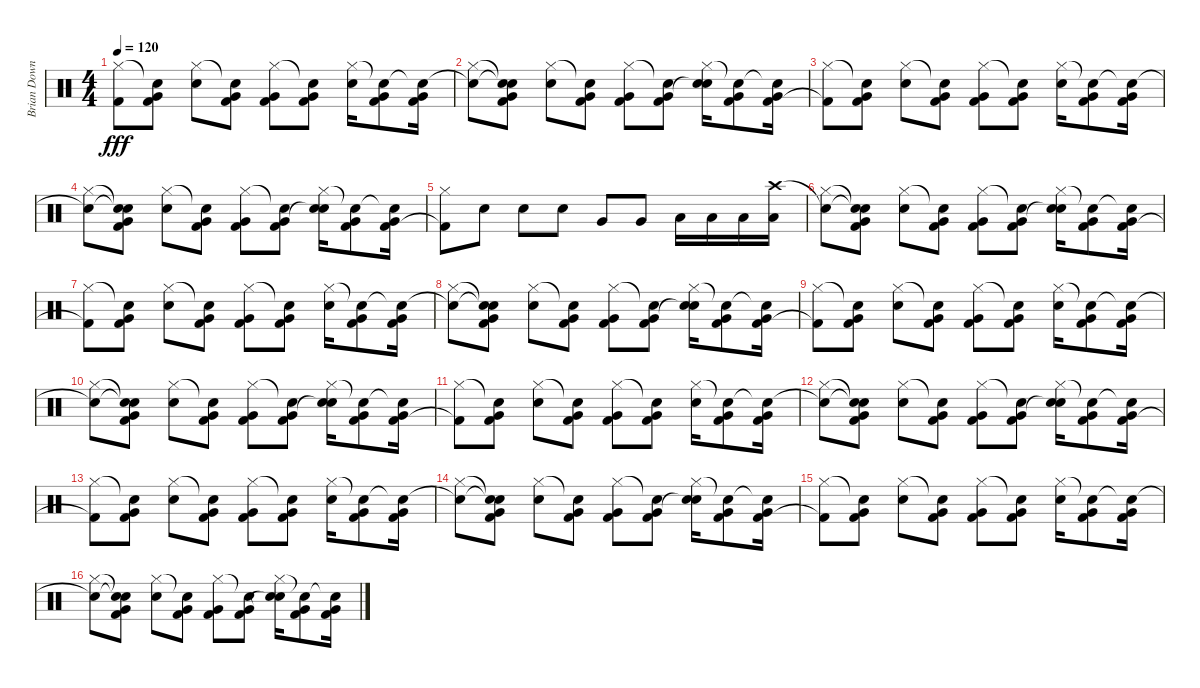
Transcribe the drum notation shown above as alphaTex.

\track ("Brian Downey" "Brian Down") {instrument percussion}
\staff {score}
\articulation defaults
\ts (4 4)
\tempo 120
\clef neutral
\ks c
("Hi-Hat (closed)" "Kick (hit) 2"{t}).8{dy fff} ("Snare (hit)"{t} "Kick (hit) 2" "Very Low Tom (hit)").8 ("Hi-Hat (closed)" "Electric Snare (hit)").8 ("Snare (hit)"{t} "Kick (hit) 2" "Very Low Tom (hit)").8 ("Hi-Hat (closed)" "Kick (hit) 2" "Very Low Tom (hit)").8 ("Snare (hit)"{t} "Kick (hit) 2" "Very Low Tom (hit)").8 ("Hi-Hat (closed)" "Electric Snare (hit)").16 ("Snare (hit)"{t} "Kick (hit) 2" "Very Low Tom (hit)").8 ("Snare (hit)"{t} "Kick (hit) 2" "Very Low Tom (hit)").16 |
("Snare (hit)"{t} "Hi-Hat (closed)").8 ("Snare (hit)"{t} "Snare (hit)"{t} "Kick (hit) 2" "Very Low Tom (hit)").8 ("Hi-Hat (closed)" "Electric Snare (hit)").8 ("Snare (hit)"{t} "Kick (hit) 2" "Very Low Tom (hit)").8 ("Hi-Hat (closed)" "Kick (hit) 2" "Very Low Tom (hit)").8 ("Snare (hit)"{t} "Kick (hit) 2" "Very Low Tom (hit)").8 ("Hi-Hat (closed)" "Electric Snare (hit)" "Snare (hit)"{t}).16 ("Snare (hit)"{t} "Kick (hit) 2" "Very Low Tom (hit)").8 ("Snare (hit)"{t} "Kick (hit) 2" "Very Low Tom (hit)").16 |
("Hi-Hat (closed)" "Kick (hit) 2"{t}).8 ("Snare (hit)"{t} "Kick (hit) 2" "Very Low Tom (hit)").8 ("Hi-Hat (closed)" "Electric Snare (hit)").8 ("Snare (hit)"{t} "Kick (hit) 2" "Very Low Tom (hit)").8 ("Hi-Hat (closed)" "Kick (hit) 2" "Very Low Tom (hit)").8 ("Snare (hit)"{t} "Kick (hit) 2" "Very Low Tom (hit)").8 ("Hi-Hat (closed)" "Electric Snare (hit)").16 ("Snare (hit)"{t} "Kick (hit) 2" "Very Low Tom (hit)").8 ("Snare (hit)"{t} "Kick (hit) 2" "Very Low Tom (hit)").16 |
("Snare (hit)"{t} "Hi-Hat (closed)").8 ("Snare (hit)"{t} "Snare (hit)"{t} "Kick (hit) 2" "Very Low Tom (hit)").8 ("Hi-Hat (closed)" "Electric Snare (hit)").8 ("Snare (hit)"{t} "Kick (hit) 2" "Very Low Tom (hit)").8 ("Hi-Hat (closed)" "Kick (hit) 2" "Very Low Tom (hit)").8 ("Snare (hit)"{t} "Kick (hit) 2" "Very Low Tom (hit)").8 ("Hi-Hat (closed)" "Electric Snare (hit)" "Snare (hit)"{t}).16 ("Snare (hit)"{t} "Kick (hit) 2" "Very Low Tom (hit)").8 ("Snare (hit)"{t} "Kick (hit) 2" "Very Low Tom (hit)").16 |
("Hi-Hat (closed)" "Kick (hit) 2"{t}).8 "Electric Snare (hit)".8 "Electric Snare (hit)".8 "Electric Snare (hit)".8 "Very Low Tom (hit)".8 "Very Low Tom (hit)".8 "Low Floor Tom (hit)".16 "Low Floor Tom (hit)".16 "Low Floor Tom (hit)".16 ("Crash high (hit)" "Low Floor Tom (hit)").16 |
("Snare (hit)"{t} "Hi-Hat (closed)").8 ("Snare (hit)"{t} "Snare (hit)"{t} "Kick (hit) 2" "Very Low Tom (hit)").8 ("Hi-Hat (closed)" "Electric Snare (hit)").8 ("Snare (hit)"{t} "Kick (hit) 2" "Very Low Tom (hit)").8 ("Hi-Hat (closed)" "Kick (hit) 2" "Very Low Tom (hit)").8 ("Snare (hit)"{t} "Kick (hit) 2" "Very Low Tom (hit)").8 ("Hi-Hat (closed)" "Electric Snare (hit)" "Snare (hit)"{t}).16 ("Snare (hit)"{t} "Kick (hit) 2" "Very Low Tom (hit)").8 ("Snare (hit)"{t} "Kick (hit) 2" "Very Low Tom (hit)").16 |
("Hi-Hat (closed)" "Kick (hit) 2"{t}).8 ("Snare (hit)"{t} "Kick (hit) 2" "Very Low Tom (hit)").8 ("Hi-Hat (closed)" "Electric Snare (hit)").8 ("Snare (hit)"{t} "Kick (hit) 2" "Very Low Tom (hit)").8 ("Hi-Hat (closed)" "Kick (hit) 2" "Very Low Tom (hit)").8 ("Snare (hit)"{t} "Kick (hit) 2" "Very Low Tom (hit)").8 ("Hi-Hat (closed)" "Electric Snare (hit)").16 ("Snare (hit)"{t} "Kick (hit) 2" "Very Low Tom (hit)").8 ("Snare (hit)"{t} "Kick (hit) 2" "Very Low Tom (hit)").16 |
("Snare (hit)"{t} "Hi-Hat (closed)").8 ("Snare (hit)"{t} "Snare (hit)"{t} "Kick (hit) 2" "Very Low Tom (hit)").8 ("Hi-Hat (closed)" "Electric Snare (hit)").8 ("Snare (hit)"{t} "Kick (hit) 2" "Very Low Tom (hit)").8 ("Hi-Hat (closed)" "Kick (hit) 2" "Very Low Tom (hit)").8 ("Snare (hit)"{t} "Kick (hit) 2" "Very Low Tom (hit)").8 ("Hi-Hat (closed)" "Electric Snare (hit)" "Snare (hit)"{t}).16 ("Snare (hit)"{t} "Kick (hit) 2" "Very Low Tom (hit)").8 ("Snare (hit)"{t} "Kick (hit) 2" "Very Low Tom (hit)").16 |
("Hi-Hat (closed)" "Kick (hit) 2"{t}).8 ("Snare (hit)"{t} "Kick (hit) 2" "Very Low Tom (hit)").8 ("Hi-Hat (closed)" "Electric Snare (hit)").8 ("Snare (hit)"{t} "Kick (hit) 2" "Very Low Tom (hit)").8 ("Hi-Hat (closed)" "Kick (hit) 2" "Very Low Tom (hit)").8 ("Snare (hit)"{t} "Kick (hit) 2" "Very Low Tom (hit)").8 ("Hi-Hat (closed)" "Electric Snare (hit)").16 ("Snare (hit)"{t} "Kick (hit) 2" "Very Low Tom (hit)").8 ("Snare (hit)"{t} "Kick (hit) 2" "Very Low Tom (hit)").16 |
("Snare (hit)"{t} "Hi-Hat (closed)").8 ("Snare (hit)"{t} "Snare (hit)"{t} "Kick (hit) 2" "Very Low Tom (hit)").8 ("Hi-Hat (closed)" "Electric Snare (hit)").8 ("Snare (hit)"{t} "Kick (hit) 2" "Very Low Tom (hit)").8 ("Hi-Hat (closed)" "Kick (hit) 2" "Very Low Tom (hit)").8 ("Snare (hit)"{t} "Kick (hit) 2" "Very Low Tom (hit)").8 ("Hi-Hat (closed)" "Electric Snare (hit)" "Snare (hit)"{t}).16 ("Snare (hit)"{t} "Kick (hit) 2" "Very Low Tom (hit)").8 ("Snare (hit)"{t} "Kick (hit) 2" "Very Low Tom (hit)").16 |
("Hi-Hat (closed)" "Kick (hit) 2"{t}).8 ("Snare (hit)"{t} "Kick (hit) 2" "Very Low Tom (hit)").8 ("Hi-Hat (closed)" "Electric Snare (hit)").8 ("Snare (hit)"{t} "Kick (hit) 2" "Very Low Tom (hit)").8 ("Hi-Hat (closed)" "Kick (hit) 2" "Very Low Tom (hit)").8 ("Snare (hit)"{t} "Kick (hit) 2" "Very Low Tom (hit)").8 ("Hi-Hat (closed)" "Electric Snare (hit)").16 ("Snare (hit)"{t} "Kick (hit) 2" "Very Low Tom (hit)").8 ("Snare (hit)"{t} "Kick (hit) 2" "Very Low Tom (hit)").16 |
("Snare (hit)"{t} "Hi-Hat (closed)").8 ("Snare (hit)"{t} "Snare (hit)"{t} "Kick (hit) 2" "Very Low Tom (hit)").8 ("Hi-Hat (closed)" "Electric Snare (hit)").8 ("Snare (hit)"{t} "Kick (hit) 2" "Very Low Tom (hit)").8 ("Hi-Hat (closed)" "Kick (hit) 2" "Very Low Tom (hit)").8 ("Snare (hit)"{t} "Kick (hit) 2" "Very Low Tom (hit)").8 ("Hi-Hat (closed)" "Electric Snare (hit)" "Snare (hit)"{t}).16 ("Snare (hit)"{t} "Kick (hit) 2" "Very Low Tom (hit)").8 ("Snare (hit)"{t} "Kick (hit) 2" "Very Low Tom (hit)").16 |
("Hi-Hat (closed)" "Kick (hit) 2"{t}).8 ("Snare (hit)"{t} "Kick (hit) 2" "Very Low Tom (hit)").8 ("Hi-Hat (closed)" "Electric Snare (hit)").8 ("Snare (hit)"{t} "Kick (hit) 2" "Very Low Tom (hit)").8 ("Hi-Hat (closed)" "Kick (hit) 2" "Very Low Tom (hit)").8 ("Snare (hit)"{t} "Kick (hit) 2" "Very Low Tom (hit)").8 ("Hi-Hat (closed)" "Electric Snare (hit)").16 ("Snare (hit)"{t} "Kick (hit) 2" "Very Low Tom (hit)").8 ("Snare (hit)"{t} "Kick (hit) 2" "Very Low Tom (hit)").16 |
("Snare (hit)"{t} "Hi-Hat (closed)").8 ("Snare (hit)"{t} "Snare (hit)"{t} "Kick (hit) 2" "Very Low Tom (hit)").8 ("Hi-Hat (closed)" "Electric Snare (hit)").8 ("Snare (hit)"{t} "Kick (hit) 2" "Very Low Tom (hit)").8 ("Hi-Hat (closed)" "Kick (hit) 2" "Very Low Tom (hit)").8 ("Snare (hit)"{t} "Kick (hit) 2" "Very Low Tom (hit)").8 ("Hi-Hat (closed)" "Electric Snare (hit)" "Snare (hit)"{t}).16 ("Snare (hit)"{t} "Kick (hit) 2" "Very Low Tom (hit)").8 ("Snare (hit)"{t} "Kick (hit) 2" "Very Low Tom (hit)").16 |
("Hi-Hat (closed)" "Kick (hit) 2"{t}).8 ("Snare (hit)"{t} "Kick (hit) 2" "Very Low Tom (hit)").8 ("Hi-Hat (closed)" "Electric Snare (hit)").8 ("Snare (hit)"{t} "Kick (hit) 2" "Very Low Tom (hit)").8 ("Hi-Hat (closed)" "Kick (hit) 2" "Very Low Tom (hit)").8 ("Snare (hit)"{t} "Kick (hit) 2" "Very Low Tom (hit)").8 ("Hi-Hat (closed)" "Electric Snare (hit)").16 ("Snare (hit)"{t} "Kick (hit) 2" "Very Low Tom (hit)").8 ("Snare (hit)"{t} "Kick (hit) 2" "Very Low Tom (hit)").16 |
("Snare (hit)"{t} "Hi-Hat (closed)").8 ("Snare (hit)"{t} "Snare (hit)"{t} "Kick (hit) 2" "Very Low Tom (hit)").8 ("Hi-Hat (closed)" "Electric Snare (hit)").8 ("Snare (hit)"{t} "Kick (hit) 2" "Very Low Tom (hit)").8 ("Hi-Hat (closed)" "Kick (hit) 2" "Very Low Tom (hit)").8 ("Snare (hit)"{t} "Kick (hit) 2" "Very Low Tom (hit)").8 ("Hi-Hat (closed)" "Electric Snare (hit)" "Snare (hit)"{t}).16 ("Snare (hit)"{t} "Kick (hit) 2" "Very Low Tom (hit)").8 ("Snare (hit)"{t} "Kick (hit) 2" "Very Low Tom (hit)").16
